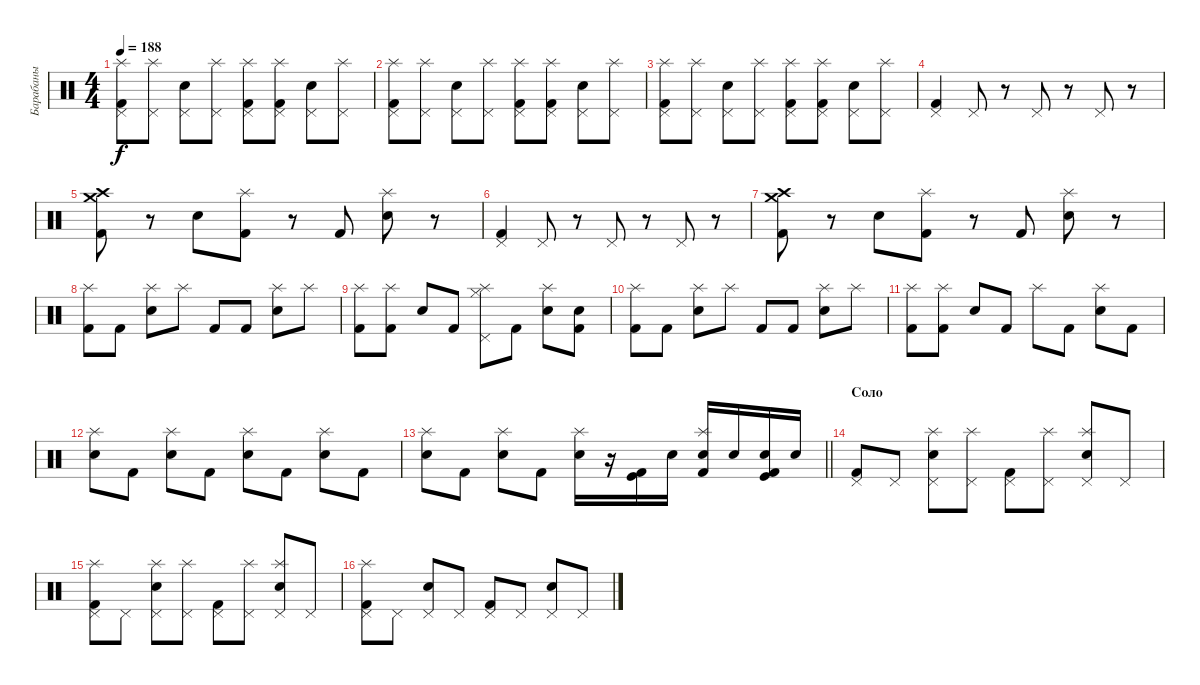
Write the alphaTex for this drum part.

\track ("Барабаны" "Барабаны") {instrument percussion}
\staff {score}
\articulation defaults
\ts (4 4)
\tempo 188
\clef neutral
\ks c
("Pedal Hi-Hat (hit)" "Kick (hit) 2" "Splash (hit)").8{dy f} ("Pedal Hi-Hat (hit)" "Splash (hit)").8 ("Pedal Hi-Hat (hit)" "Electric Snare (hit)").8 ("Pedal Hi-Hat (hit)" "Splash (hit)").8 ("Pedal Hi-Hat (hit)" "Kick (hit) 2" "Splash (hit)").8 ("Pedal Hi-Hat (hit)" "Kick (hit) 2" "Splash (hit)").8 ("Pedal Hi-Hat (hit)" "Electric Snare (hit)").8 ("Pedal Hi-Hat (hit)" "Splash (hit)").8 |
("Pedal Hi-Hat (hit)" "Kick (hit) 2" "Splash (hit)").8 ("Pedal Hi-Hat (hit)" "Splash (hit)").8 ("Pedal Hi-Hat (hit)" "Electric Snare (hit)").8 ("Pedal Hi-Hat (hit)" "Splash (hit)").8 ("Pedal Hi-Hat (hit)" "Kick (hit) 2" "Splash (hit)").8 ("Pedal Hi-Hat (hit)" "Kick (hit) 2" "Splash (hit)").8 ("Pedal Hi-Hat (hit)" "Electric Snare (hit)").8 ("Pedal Hi-Hat (hit)" "Splash (hit)").8 |
("Pedal Hi-Hat (hit)" "Kick (hit) 2" "Splash (hit)").8 ("Pedal Hi-Hat (hit)" "Splash (hit)").8 ("Pedal Hi-Hat (hit)" "Electric Snare (hit)").8 ("Pedal Hi-Hat (hit)" "Splash (hit)").8 ("Pedal Hi-Hat (hit)" "Kick (hit) 2" "Splash (hit)").8 ("Pedal Hi-Hat (hit)" "Kick (hit) 2" "Splash (hit)").8 ("Pedal Hi-Hat (hit)" "Electric Snare (hit)").8 ("Pedal Hi-Hat (hit)" "Splash (hit)").8 |
("Pedal Hi-Hat (hit)" "Kick (hit) 2").4 "Pedal Hi-Hat (hit)".8 r.8 "Pedal Hi-Hat (hit)".8 r.8 "Pedal Hi-Hat (hit)".8 r.8 |
("Crash medium (hit)" "Crash high (hit)" "Kick (hit) 2").8 r.8 "Electric Snare (hit)".8 ("Splash (hit)" "Kick (hit) 2").8 r.8 "Kick (hit) 2".8 ("Splash (hit)" "Electric Snare (hit)").8 r.8 |
("Pedal Hi-Hat (hit)" "Kick (hit) 2").4 "Pedal Hi-Hat (hit)".8 r.8 "Pedal Hi-Hat (hit)".8 r.8 "Pedal Hi-Hat (hit)".8 r.8 |
("Crash medium (hit)" "Crash high (hit)" "Kick (hit) 2").8 r.8 "Electric Snare (hit)".8 ("Splash (hit)" "Kick (hit) 2").8 r.8 "Kick (hit) 2".8 ("Splash (hit)" "Electric Snare (hit)").8 r.8 |
("Splash (hit)" "Kick (hit) 2").8 "Kick (hit) 2".8 ("Splash (hit)" "Electric Snare (hit)").8 "Splash (hit)".8 "Kick (hit) 2".8 "Kick (hit) 2".8 ("Splash (hit)" "Electric Snare (hit)").8 "Splash (hit)".8 |
("Splash (hit)" "Kick (hit) 2").8 ("Splash (hit)" "Kick (hit) 2").8 "Electric Snare (hit)".8 "Kick (hit) 2".8 ("Splash (hit)" "Hi-Hat (closed)" "Pedal Hi-Hat (hit)").8 "Kick (hit) 2".8 ("Splash (hit)" "Electric Snare (hit)").8 ("Electric Snare (hit)" "Kick (hit) 2").8 |
("Splash (hit)" "Kick (hit) 2").8 "Kick (hit) 2".8 ("Splash (hit)" "Electric Snare (hit)").8 "Splash (hit)".8 "Kick (hit) 2".8 "Kick (hit) 2".8 ("Splash (hit)" "Electric Snare (hit)").8 "Splash (hit)".8 |
("Splash (hit)" "Kick (hit) 2").8 ("Splash (hit)" "Kick (hit) 2").8 "Electric Snare (hit)".8 "Kick (hit) 2".8 "Splash (hit)".8 "Kick (hit) 2".8 ("Splash (hit)" "Electric Snare (hit)").8 "Kick (hit) 2".8 |
("Splash (hit)" "Electric Snare (hit)").8 "Kick (hit) 2".8 ("Splash (hit)" "Electric Snare (hit)").8 "Kick (hit) 2".8 ("Splash (hit)" "Electric Snare (hit)").8 "Kick (hit) 2".8 ("Splash (hit)" "Electric Snare (hit)").8 "Kick (hit) 2".8 |
\barLineRight lightlight
("Splash (hit)" "Electric Snare (hit)").8 "Kick (hit) 2".8 ("Splash (hit)" "Electric Snare (hit)").8 "Kick (hit) 2".8 ("Splash (hit)" "Electric Snare (hit)").16 r.16 ("Kick (hit) 2" "Kick (hit)").16 "Electric Snare (hit)".16 ("Splash (hit)" "Electric Snare (hit)" "Kick (hit) 2").16 "Electric Snare (hit)".16 ("Electric Snare (hit)" "Kick (hit) 2" "Kick (hit)").16 "Electric Snare (hit)".16 |
\section ("" "Соло")
("Pedal Hi-Hat (hit)" "Kick (hit) 2").8 "Pedal Hi-Hat (hit)".8 ("Pedal Hi-Hat (hit)" "Splash (hit)" "Electric Snare (hit)").8 ("Splash (hit)" "Pedal Hi-Hat (hit)").8 ("Pedal Hi-Hat (hit)" "Kick (hit) 2").8 ("Splash (hit)" "Pedal Hi-Hat (hit)").8 ("Pedal Hi-Hat (hit)" "Splash (hit)" "Electric Snare (hit)").8 "Pedal Hi-Hat (hit)".8 |
("Splash (hit)" "Pedal Hi-Hat (hit)" "Kick (hit) 2").8 "Pedal Hi-Hat (hit)".8 ("Pedal Hi-Hat (hit)" "Splash (hit)" "Electric Snare (hit)").8 ("Splash (hit)" "Pedal Hi-Hat (hit)").8 ("Pedal Hi-Hat (hit)" "Kick (hit) 2").8 ("Splash (hit)" "Pedal Hi-Hat (hit)").8 ("Pedal Hi-Hat (hit)" "Splash (hit)" "Electric Snare (hit)").8 "Pedal Hi-Hat (hit)".8 |
("Pedal Hi-Hat (hit)" "Splash (hit)" "Kick (hit) 2").8 "Pedal Hi-Hat (hit)".8 ("Pedal Hi-Hat (hit)" "Electric Snare (hit)").8 "Pedal Hi-Hat (hit)".8 ("Pedal Hi-Hat (hit)" "Kick (hit) 2").8 "Pedal Hi-Hat (hit)".8 ("Pedal Hi-Hat (hit)" "Electric Snare (hit)").8 "Pedal Hi-Hat (hit)".8
